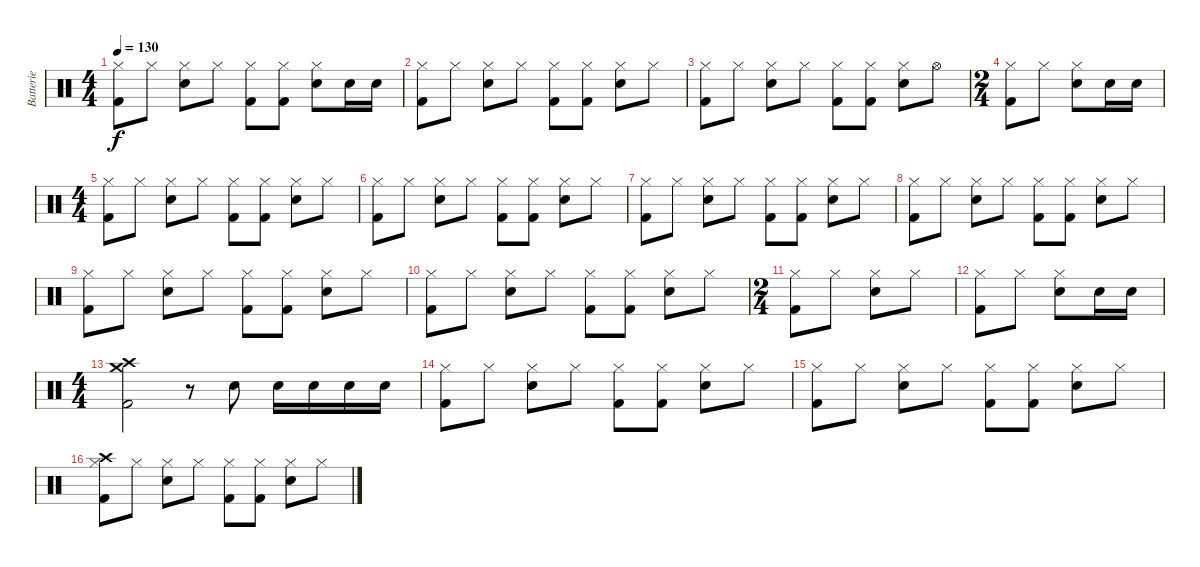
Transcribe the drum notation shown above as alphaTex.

\track ("Batterie" "Batterie") {instrument percussion}
\staff {score}
\articulation defaults
\ts (4 4)
\tempo 130
\clef neutral
\ks c
("Hi-Hat (closed)" "Kick (hit) 2").8{dy f} "Hi-Hat (closed)".8 ("Hi-Hat (closed)" "Snare (hit) 2").8 "Hi-Hat (closed)".8 ("Hi-Hat (closed)" "Kick (hit) 2").8 ("Hi-Hat (closed)" "Kick (hit) 2").8 ("Hi-Hat (closed)" "Snare (hit) 2").8 "Snare (hit) 2".16 "Snare (hit) 2".16 |
("Hi-Hat (closed)" "Kick (hit) 2").8 "Hi-Hat (closed)".8 ("Hi-Hat (closed)" "Snare (hit) 2").8 "Hi-Hat (closed)".8 ("Hi-Hat (closed)" "Kick (hit) 2").8 ("Hi-Hat (closed)" "Kick (hit) 2").8 ("Hi-Hat (closed)" "Snare (hit) 2").8 "Hi-Hat (closed)".8 |
("Hi-Hat (closed)" "Kick (hit) 2").8 "Hi-Hat (closed)".8 ("Hi-Hat (closed)" "Snare (hit) 2").8 "Hi-Hat (closed)".8 ("Hi-Hat (closed)" "Kick (hit) 2").8 ("Hi-Hat (closed)" "Kick (hit) 2").8 ("Hi-Hat (closed)" "Snare (hit) 2").8 "Hi-Hat (open)".8 |
\ts (2 4)
("Hi-Hat (closed)" "Kick (hit) 2").8 "Hi-Hat (closed)".8 ("Hi-Hat (closed)" "Snare (hit) 2").8 "Snare (hit) 2".16 "Snare (hit) 2".16 |
\ts (4 4)
("Hi-Hat (closed)" "Kick (hit) 2").8 "Hi-Hat (closed)".8 ("Hi-Hat (closed)" "Snare (hit) 2").8 "Hi-Hat (closed)".8 ("Hi-Hat (closed)" "Kick (hit) 2").8 ("Hi-Hat (closed)" "Kick (hit) 2").8 ("Hi-Hat (closed)" "Snare (hit) 2").8 "Hi-Hat (closed)".8 |
("Hi-Hat (closed)" "Kick (hit) 2").8 "Hi-Hat (closed)".8 ("Hi-Hat (closed)" "Snare (hit) 2").8 "Hi-Hat (closed)".8 ("Hi-Hat (closed)" "Kick (hit) 2").8 ("Hi-Hat (closed)" "Kick (hit) 2").8 ("Hi-Hat (closed)" "Snare (hit) 2").8 "Hi-Hat (closed)".8 |
("Hi-Hat (closed)" "Kick (hit) 2").8 "Hi-Hat (closed)".8 ("Hi-Hat (closed)" "Snare (hit) 2").8 "Hi-Hat (closed)".8 ("Hi-Hat (closed)" "Kick (hit) 2").8 ("Hi-Hat (closed)" "Kick (hit) 2").8 ("Hi-Hat (closed)" "Snare (hit) 2").8 "Hi-Hat (closed)".8 |
("Hi-Hat (closed)" "Kick (hit) 2").8 "Hi-Hat (closed)".8 ("Hi-Hat (closed)" "Snare (hit) 2").8 "Hi-Hat (closed)".8 ("Hi-Hat (closed)" "Kick (hit) 2").8 ("Hi-Hat (closed)" "Kick (hit) 2").8 ("Hi-Hat (closed)" "Snare (hit) 2").8 "Hi-Hat (closed)".8 |
("Hi-Hat (closed)" "Kick (hit) 2").8 "Hi-Hat (closed)".8 ("Hi-Hat (closed)" "Snare (hit) 2").8 "Hi-Hat (closed)".8 ("Hi-Hat (closed)" "Kick (hit) 2").8 ("Hi-Hat (closed)" "Kick (hit) 2").8 ("Hi-Hat (closed)" "Snare (hit) 2").8 "Hi-Hat (closed)".8 |
("Hi-Hat (closed)" "Kick (hit) 2").8 "Hi-Hat (closed)".8 ("Hi-Hat (closed)" "Snare (hit) 2").8 "Hi-Hat (closed)".8 ("Hi-Hat (closed)" "Kick (hit) 2").8 ("Hi-Hat (closed)" "Kick (hit) 2").8 ("Hi-Hat (closed)" "Snare (hit) 2").8 "Hi-Hat (closed)".8 |
\ts (2 4)
("Hi-Hat (closed)" "Kick (hit) 2").8 "Hi-Hat (closed)".8 ("Hi-Hat (closed)" "Snare (hit) 2").8 "Hi-Hat (closed)".8 |
("Hi-Hat (closed)" "Kick (hit) 2").8 "Hi-Hat (closed)".8 ("Hi-Hat (closed)" "Snare (hit) 2").8 "Snare (hit) 2".16 "Snare (hit) 2".16 |
\ts (4 4)
("Crash high (hit)" "Crash medium (hit)" "Kick (hit) 2").2 r.8 "Snare (hit) 2".8 "Snare (hit) 2".16 "Snare (hit) 2".16 "Snare (hit) 2".16 "Snare (hit) 2".16 |
("Hi-Hat (closed)" "Kick (hit) 2").8 "Hi-Hat (closed)".8 ("Hi-Hat (closed)" "Snare (hit) 2").8 "Hi-Hat (closed)".8 ("Hi-Hat (closed)" "Kick (hit) 2").8 ("Hi-Hat (closed)" "Kick (hit) 2").8 ("Hi-Hat (closed)" "Snare (hit) 2").8 "Hi-Hat (closed)".8 |
("Hi-Hat (closed)" "Kick (hit) 2").8 "Hi-Hat (closed)".8 ("Hi-Hat (closed)" "Snare (hit) 2").8 "Hi-Hat (closed)".8 ("Hi-Hat (closed)" "Kick (hit) 2").8 ("Hi-Hat (closed)" "Kick (hit) 2").8 ("Hi-Hat (closed)" "Snare (hit) 2").8 "Hi-Hat (closed)".8 |
("Crash high (hit)" "Hi-Hat (closed)" "Kick (hit) 2").8 "Hi-Hat (closed)".8 ("Hi-Hat (closed)" "Snare (hit) 2").8 "Hi-Hat (closed)".8 ("Hi-Hat (closed)" "Kick (hit) 2").8 ("Hi-Hat (closed)" "Kick (hit) 2").8 ("Hi-Hat (closed)" "Snare (hit) 2").8 "Hi-Hat (closed)".8
